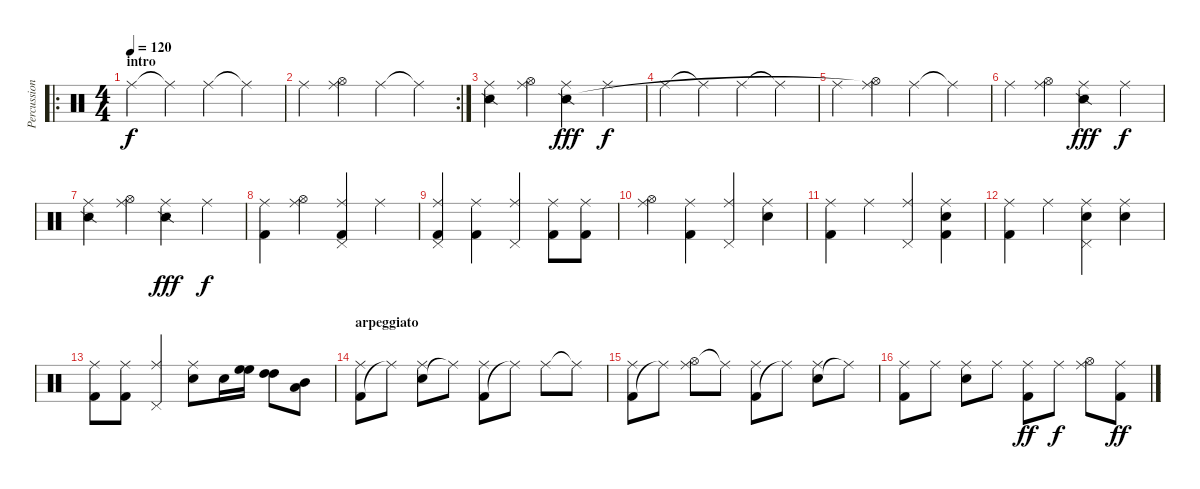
\track ("Percussioni" "Percussion") {instrument percussion}
\staff {score}
\articulation defaults
\ro
\ts (4 4)
\section ("" "intro")
\tempo 120
\clef neutral
\ks c "Ride (middle)".4{dy f} "Ride (middle)"{t}.4 "Ride (middle)".4 "Ride (middle)"{t}.4
|
\rc 2 "Ride (middle)".4
("Hi-Hat (open)" "Ride (middle)").4 "Ride (middle)".4 "Ride (middle)"{t}.4 |
("Ride (middle)" "Snare (side stick) 2").4 ("Hi-Hat (open)" "Ride (middle)").4 ("Ride (middle)" "Snare (side stick) 2").4{dy fff} "Ride (middle)".4{dy f} |
"Ride (middle)".4 "Ride (middle)"{t}.4 "Ride (middle)".4 "Ride (middle)"{t}.4 |
"Ride (middle)".4 ("Hi-Hat (open)" "Ride (middle)"{t}).4 "Ride (middle)".4 "Ride (middle)"{t}.4 |
"Ride (middle)".4 ("Hi-Hat (open)" "Ride (middle)").4 ("Ride (middle)" "Snare (side stick) 2").4{dy fff} "Ride (middle)".4{dy f} |
("Ride (middle)" "Snare (side stick) 2").4 ("Hi-Hat (open)" "Ride (middle)").4 ("Ride (middle)" "Snare (side stick) 2").4{dy fff} "Ride (middle)".4{dy f} |
("Ride (middle)" "Kick (hit) 2").4 ("Hi-Hat (open)" "Ride (middle)").4 ("Pedal Hi-Hat (hit)" "Ride (middle)" "Kick (hit) 2").4 "Ride (middle)".4 |
("Ride (middle)" "Pedal Hi-Hat (hit)" "Kick (hit) 2").4 ("Ride (middle)" "Kick (hit) 2").4 ("Pedal Hi-Hat (hit)" "Ride (middle)").4 ("Ride (middle)" "Kick (hit) 2").8 ("Ride (middle)" "Kick (hit) 2").8 |
("Hi-Hat (open)" "Ride (middle)").4 ("Ride (middle)" "Kick (hit) 2").4 ("Pedal Hi-Hat (hit)" "Ride (middle)").4 ("Ride (middle)" "Hand Clap (hit)").4 |
("Ride (middle)" "Kick (hit) 2").4 "Ride (middle)".4 ("Pedal Hi-Hat (hit)" "Ride (middle)").4 ("Kick (hit) 2" "Ride (middle)" "Hand Clap (hit)").4 |
("Ride (middle)" "Kick (hit) 2").4 "Ride (middle)".4 ("Pedal Hi-Hat (hit)" "Ride (middle)" "Hand Clap (hit)").4 ("Ride (middle)" "Hand Clap (hit)").4 |
("Ride (middle)" "Kick (hit) 2").8 ("Ride (middle)" "Kick (hit) 2").8 ("Pedal Hi-Hat (hit)" "Ride (middle)").4 ("Ride (middle)" "Electric Snare (hit)").8 "Electric Snare (hit)".16 ("High Floor Tom (hit)" "High Floor Tom (hit)").16 ("High Tom (hit)" "High Tom (hit)").8 ("Low Tom (hit)" "Mid Tom (hit)").8 |
\section ("" "arpeggiato")
("Kick (hit) 2" "Ride (middle)").8 "Ride (middle)"{t}.8 ("Electric Snare (hit)" "Ride (middle)").8 "Ride (middle)"{t}.8 ("Kick (hit) 2" "Ride (middle)").8 "Ride (middle)"{t}.8 "Ride (middle)".8 "Ride (middle)"{t}.8 |
("Kick (hit) 2" "Ride (middle)").8 "Ride (middle)"{t}.8 ("Hi-Hat (open)" "Ride (middle)").8 "Ride (middle)"{t}.8 ("Kick (hit) 2" "Ride (middle)").8 "Ride (middle)"{t}.8 ("Electric Snare (hit)" "Ride (middle)").8 "Ride (middle)"{t}.8 |
("Kick (hit) 2" "Ride (middle)").8 "Ride (middle)".8 ("Electric Snare (hit)" "Ride (middle)").8 "Ride (middle)".8 ("Kick (hit) 2" "Ride (middle)").8{dy ff} "Ride (middle)".8{dy f} ("Hi-Hat (open)" "Ride (middle)").8 ("Kick (hit) 2" "Ride (middle)").8{dy ff}
